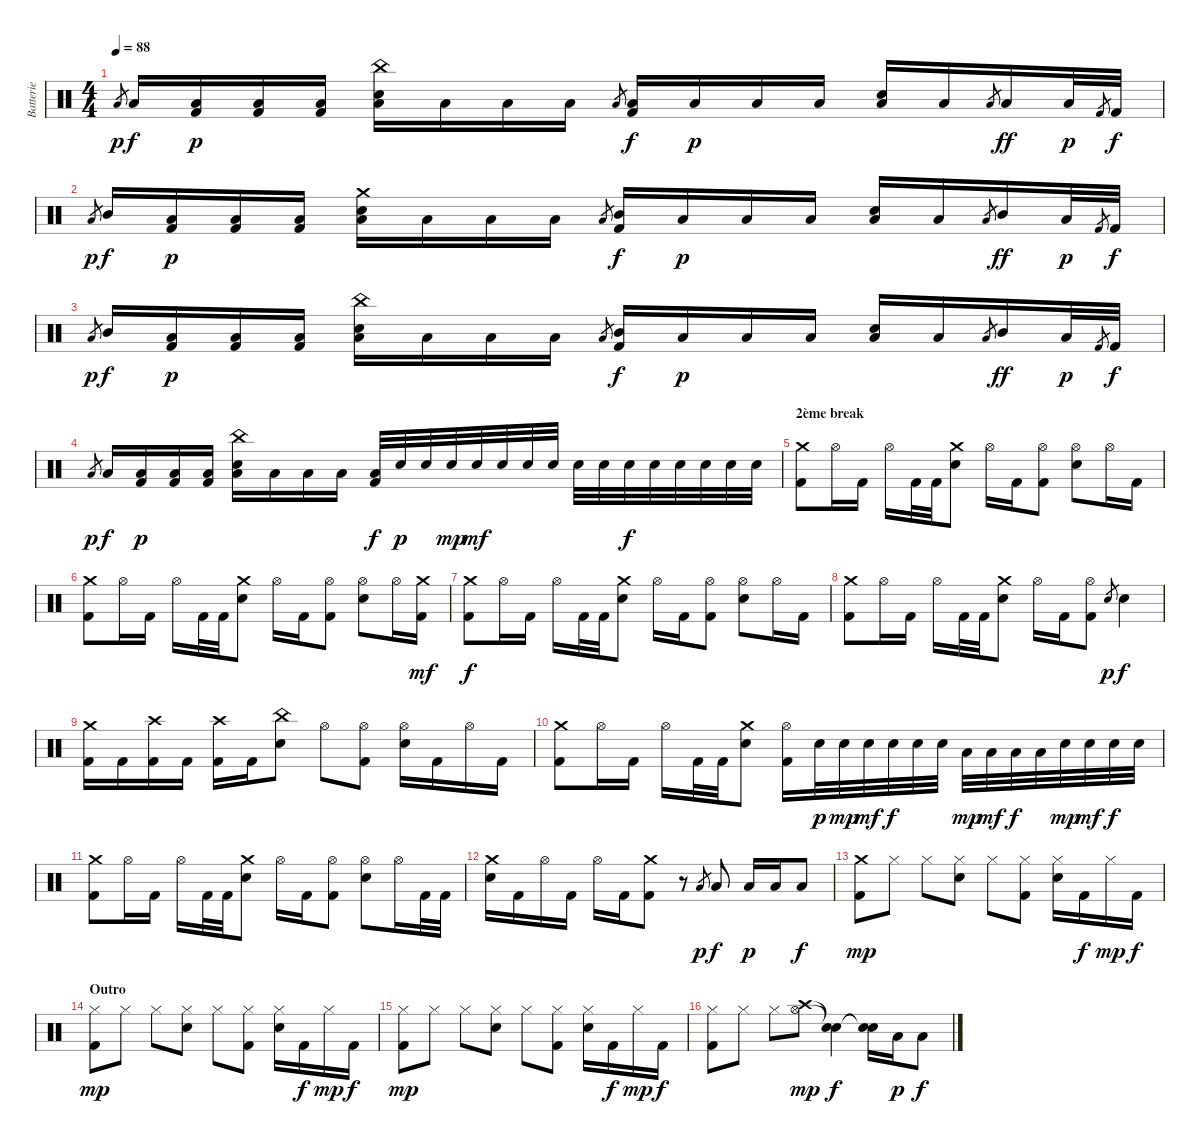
\track ("Batterie" "Batterie") {instrument percussion}
\staff {score}
\articulation defaults
\ts (4 4)
\tempo 88
\clef neutral
\ks c "Low Tom (hit)".8{gr dy p} "Low Tom (hit)".16{dy f}
("Low Tom (hit)" "Kick (hit) 2").16{dy p} ("Low Tom (hit)" "Kick (hit) 2").16 ("Low Tom (hit)" "Kick (hit) 2").16 ("China (hit)" "Electric Snare (hit)" "Low Tom (hit)").16 "Low Tom (hit)".16 "Low Tom (hit)".16 "Low Tom (hit)".16 "Low Tom (hit)".8{gr} ("Low Tom (hit)" "Kick (hit) 2").16{dy f} "Low Tom (hit)".16{dy p} "Low Tom (hit)".16 "Low Tom (hit)".16 ("Electric Snare (hit)" "Low Tom (hit)").16 "Low Tom (hit)".16 "Low Tom (hit)".8{gr} "Low Tom (hit)".16{dy ff} "Low Tom (hit)".32{dy p} "Kick (hit) 2".8{gr} "Kick (hit) 2".32{dy f} |
"Low Tom (hit)".8{gr dy p} "Mid Tom (hit)".16{dy f} ("Low Tom (hit)" "Kick (hit) 2").16{dy p} ("Low Tom (hit)" "Kick (hit) 2").16 ("Low Tom (hit)" "Kick (hit) 2").16 ("Crash medium (hit)" "Electric Snare (hit)" "Low Tom (hit)").16 "Low Tom (hit)".16 "Low Tom (hit)".16 "Low Tom (hit)".16 "Low Tom (hit)".8{gr} ("Mid Tom (hit)" "Kick (hit) 2").16{dy f} "Low Tom (hit)".16{dy p} "Low Tom (hit)".16 "Low Tom (hit)".16 ("Electric Snare (hit)" "Low Tom (hit)").16 "Low Tom (hit)".16 "Low Tom (hit)".8{gr} "Mid Tom (hit)".16{dy ff} "Low Tom (hit)".32{dy p} "Kick (hit) 2".8{gr} "Kick (hit) 2".32{dy f} |
"Low Tom (hit)".8{gr dy p} "Mid Tom (hit)".16{dy f} ("Low Tom (hit)" "Kick (hit) 2").16{dy p} ("Low Tom (hit)" "Kick (hit) 2").16 ("Low Tom (hit)" "Kick (hit) 2").16 ("China (hit)" "Electric Snare (hit)" "Low Tom (hit)").16 "Low Tom (hit)".16 "Low Tom (hit)".16 "Low Tom (hit)".16 "Low Tom (hit)".8{gr} ("Mid Tom (hit)" "Kick (hit) 2").16{dy f} "Low Tom (hit)".16{dy p} "Low Tom (hit)".16 "Low Tom (hit)".16 ("Electric Snare (hit)" "Low Tom (hit)").16 "Low Tom (hit)".16 "Low Tom (hit)".8{gr} "Mid Tom (hit)".16{dy ff} "Low Tom (hit)".32{dy p} "Kick (hit) 2".8{gr} "Kick (hit) 2".32{dy f} |
"Low Tom (hit)".8{gr dy p} "Low Tom (hit)".16{dy f} ("Low Tom (hit)" "Kick (hit) 2").16{dy p} ("Low Tom (hit)" "Kick (hit) 2").16 ("Low Tom (hit)" "Kick (hit) 2").16 ("China (hit)" "Electric Snare (hit)" "Low Tom (hit)").16 "Low Tom (hit)".16 "Low Tom (hit)".16 "Low Tom (hit)".16 ("Low Tom (hit)" "Kick (hit) 2").32{dy f} "Electric Snare (hit)".32{dy p} "Electric Snare (hit)".32 "Electric Snare (hit)".32{dy mp} "Electric Snare (hit)".32{dy mf} "Electric Snare (hit)".32 "Electric Snare (hit)".32 "Electric Snare (hit)".32 "Electric Snare (hit)".32 "Electric Snare (hit)".32 "Electric Snare (hit)".32{dy f} "Electric Snare (hit)".32 "Electric Snare (hit)".32 "Electric Snare (hit)".32 "Electric Snare (hit)".32 "Electric Snare (hit)".32 |
\section ("" "2ème break")
("Crash medium (hit)" "Kick (hit) 2").8 "Hi-Hat (open)".16 "Kick (hit) 2".16 "Hi-Hat (open)".16 "Kick (hit) 2".32 "Kick (hit) 2".32 ("Crash medium (hit)" "Electric Snare (hit)").8 "Hi-Hat (open)".16 "Kick (hit) 2".16 ("Hi-Hat (open)" "Kick (hit) 2").8 ("Hi-Hat (open)" "Electric Snare (hit)").8 "Hi-Hat (open)".16 "Kick (hit) 2".16 |
("Crash medium (hit)" "Kick (hit) 2").8 "Hi-Hat (open)".16 "Kick (hit) 2".16 "Hi-Hat (open)".16 "Kick (hit) 2".32 "Kick (hit) 2".32 ("Crash medium (hit)" "Electric Snare (hit)").8 "Hi-Hat (open)".16 "Kick (hit) 2".16 ("Hi-Hat (open)" "Kick (hit) 2").8 ("Hi-Hat (open)" "Electric Snare (hit)").8 "Hi-Hat (open)".16 ("Crash medium (hit)" "Kick (hit) 2").16{dy mf} |
("Crash medium (hit)" "Kick (hit) 2").8{dy f} "Hi-Hat (open)".16 "Kick (hit) 2".16 "Hi-Hat (open)".16 "Kick (hit) 2".32 "Kick (hit) 2".32 ("Crash medium (hit)" "Electric Snare (hit)").8 "Hi-Hat (open)".16 "Kick (hit) 2".16 ("Hi-Hat (open)" "Kick (hit) 2").8 ("Hi-Hat (open)" "Electric Snare (hit)").8 "Hi-Hat (open)".16 "Kick (hit) 2".16 |
("Crash medium (hit)" "Kick (hit) 2").8 "Hi-Hat (open)".16 "Kick (hit) 2".16 "Hi-Hat (open)".16 "Kick (hit) 2".32 "Kick (hit) 2".32 ("Crash medium (hit)" "Electric Snare (hit)").8 "Hi-Hat (open)".16 "Kick (hit) 2".16 ("Hi-Hat (open)" "Kick (hit) 2").8 "Electric Snare (hit)".8{gr dy p} "Electric Snare (hit)".4{dy f} |
("Crash medium (hit)" "Kick (hit) 2").16 "Kick (hit) 2".16 ("Crash high (hit)" "Kick (hit) 2").16 "Kick (hit) 2".16 ("Crash high (hit)" "Kick (hit) 2").16 "Kick (hit) 2".16 ("China (hit)" "Electric Snare (hit)").8 "Hi-Hat (open)".8 ("Hi-Hat (open)" "Kick (hit) 2").8 ("Hi-Hat (open)" "Electric Snare (hit)").16 "Kick (hit) 2".16 "Hi-Hat (open)".16 "Kick (hit) 2".16 |
("Crash medium (hit)" "Kick (hit) 2").8 "Hi-Hat (open)".16 "Kick (hit) 2".16 "Hi-Hat (open)".16 "Kick (hit) 2".32 "Kick (hit) 2".32 ("Crash medium (hit)" "Electric Snare (hit)").8 ("Hi-Hat (open)" "Kick (hit) 2").16 "Electric Snare (hit)".32{dy p} "Electric Snare (hit)".32{dy mp} "Electric Snare (hit)".32{dy mf} "Electric Snare (hit)".32{dy f} "Electric Snare (hit)".32 "Electric Snare (hit)".32 "Low Tom (hit)".32{dy mp} "Low Tom (hit)".32{dy mf} "Low Tom (hit)".32{dy f} "Low Tom (hit)".32 "Electric Snare (hit)".32{dy mp} "Electric Snare (hit)".32{dy mf} "Electric Snare (hit)".32{dy f} "Electric Snare (hit)".32 |
("Crash medium (hit)" "Kick (hit) 2").8 "Hi-Hat (open)".16 "Kick (hit) 2".16 "Hi-Hat (open)".16 "Kick (hit) 2".32 "Kick (hit) 2".32 ("Crash medium (hit)" "Electric Snare (hit)").8 "Hi-Hat (open)".16 "Kick (hit) 2".16 ("Hi-Hat (open)" "Kick (hit) 2").8 ("Hi-Hat (open)" "Electric Snare (hit)").8 "Hi-Hat (open)".16 "Kick (hit) 2".32 "Kick (hit) 2".32 |
("Crash medium (hit)" "Electric Snare (hit)").16 "Kick (hit) 2".16 "Hi-Hat (open)".16 "Kick (hit) 2".16 "Hi-Hat (open)".16 "Kick (hit) 2".16 ("Crash medium (hit)" "Kick (hit) 2").8 r.8 "Low Tom (hit)".8{gr dy p} "Low Tom (hit)".8{dy f} "Low Tom (hit)".16{dy p} "Low Tom (hit)".16 "Low Tom (hit)".8{dy f} |
("Crash medium (hit)" "Kick (hit) 2").8{dy mp} "Hi-Hat (closed)".8 "Hi-Hat (closed)".8 ("Hi-Hat (closed)" "Electric Snare (hit)").8 "Hi-Hat (closed)".8 ("Hi-Hat (closed)" "Kick (hit) 2").8 ("Hi-Hat (closed)" "Electric Snare (hit)").16 "Kick (hit) 2".16{dy f} "Hi-Hat (closed)".16{dy mp} "Kick (hit) 2".16{dy f} |
\section ("" "Outro")
("Hi-Hat (closed)" "Kick (hit) 2").8{dy mp} "Hi-Hat (closed)".8 "Hi-Hat (closed)".8 ("Hi-Hat (closed)" "Electric Snare (hit)").8 "Hi-Hat (closed)".8 ("Hi-Hat (closed)" "Kick (hit) 2").8 ("Hi-Hat (closed)" "Electric Snare (hit)").16 "Kick (hit) 2".16{dy f} "Hi-Hat (closed)".16{dy mp} "Kick (hit) 2".16{dy f} |
("Hi-Hat (closed)" "Kick (hit) 2").8{dy mp} "Hi-Hat (closed)".8 "Hi-Hat (closed)".8 ("Hi-Hat (closed)" "Electric Snare (hit)").8 "Hi-Hat (closed)".8 ("Hi-Hat (closed)" "Kick (hit) 2").8 ("Hi-Hat (closed)" "Electric Snare (hit)").16 "Kick (hit) 2".16{dy f} "Hi-Hat (closed)".16{dy mp} "Kick (hit) 2".16{dy f} |
("Hi-Hat (closed)" "Kick (hit) 2").8 "Hi-Hat (closed)".8 "Hi-Hat (closed)".8 ("Crash high (hit)" "Hi-Hat (open)").8{dy mp} ("Snare (hit)"{t} "Snare (hit)"{t}).4{dy f} ("Snare (hit)"{t} "Snare (hit)"{t}).16 "Low Tom (hit)".16{dy p} "Low Tom (hit)".8{dy f}
